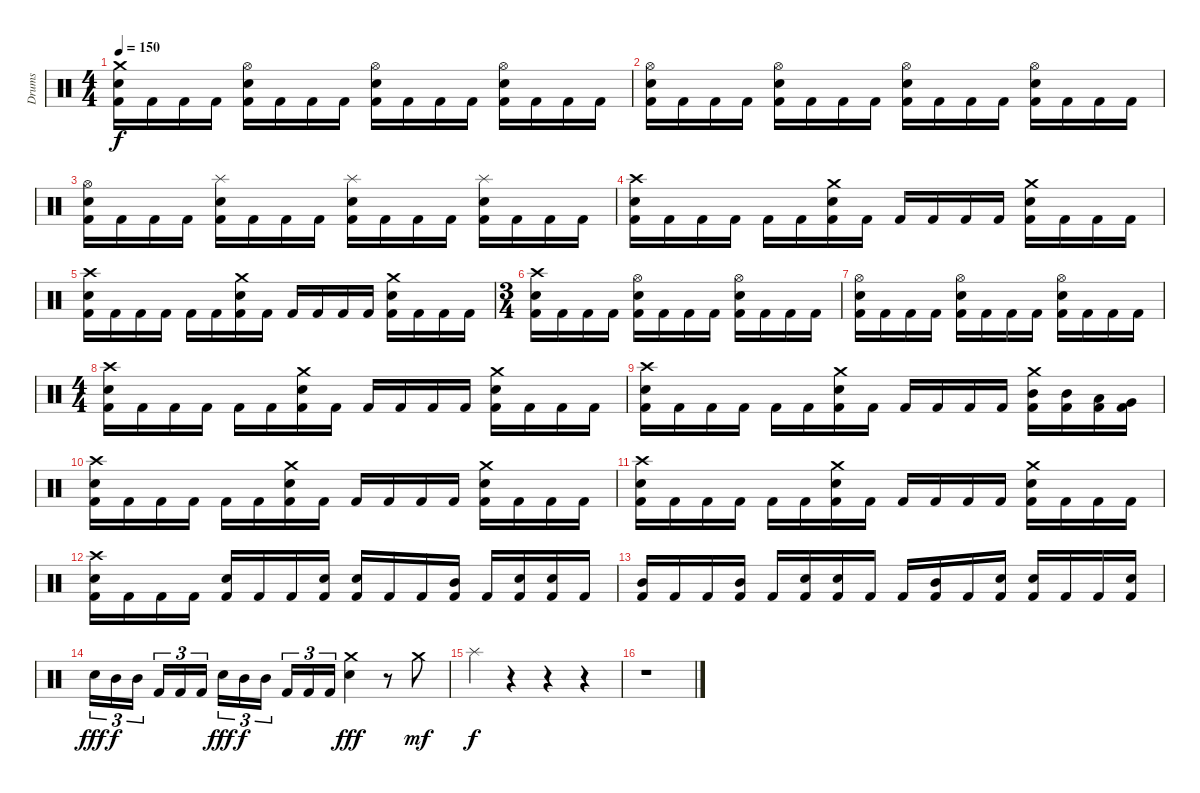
\track ("Drums" "Drums") {instrument percussion}
\staff {score}
\articulation defaults
\ts (4 4)
\tempo 150
\clef neutral
\ks c
("Crash medium (hit)" "Electric Snare (hit)" "Kick (hit) 2").16{dy f} "Kick (hit) 2".16 "Kick (hit) 2".16 "Kick (hit) 2".16 ("Hi-Hat (open)" "Electric Snare (hit)" "Kick (hit) 2").16 "Kick (hit) 2".16 "Kick (hit) 2".16 "Kick (hit) 2".16 ("Hi-Hat (open)" "Electric Snare (hit)" "Kick (hit) 2").16 "Kick (hit) 2".16 "Kick (hit) 2".16 "Kick (hit) 2".16 ("Hi-Hat (open)" "Electric Snare (hit)" "Kick (hit) 2").16 "Kick (hit) 2".16 "Kick (hit) 2".16 "Kick (hit) 2".16 |
("Hi-Hat (open)" "Electric Snare (hit)" "Kick (hit) 2").16 "Kick (hit) 2".16 "Kick (hit) 2".16 "Kick (hit) 2".16 ("Hi-Hat (open)" "Electric Snare (hit)" "Kick (hit) 2").16 "Kick (hit) 2".16 "Kick (hit) 2".16 "Kick (hit) 2".16 ("Hi-Hat (open)" "Electric Snare (hit)" "Kick (hit) 2").16 "Kick (hit) 2".16 "Kick (hit) 2".16 "Kick (hit) 2".16 ("Hi-Hat (open)" "Electric Snare (hit)" "Kick (hit) 2").16 "Kick (hit) 2".16 "Kick (hit) 2".16 "Kick (hit) 2".16 |
("Hi-Hat (open)" "Electric Snare (hit)" "Kick (hit) 2").16 "Kick (hit) 2".16 "Kick (hit) 2".16 "Kick (hit) 2".16 ("Splash (hit)" "Electric Snare (hit)" "Kick (hit) 2").16 "Kick (hit) 2".16 "Kick (hit) 2".16 "Kick (hit) 2".16 ("Splash (hit)" "Electric Snare (hit)" "Kick (hit) 2").16 "Kick (hit) 2".16 "Kick (hit) 2".16 "Kick (hit) 2".16 ("Splash (hit)" "Electric Snare (hit)" "Kick (hit) 2").16 "Kick (hit) 2".16 "Kick (hit) 2".16 "Kick (hit) 2".16 |
("Crash high (hit)" "Electric Snare (hit)" "Kick (hit) 2").16 "Kick (hit) 2".16 "Kick (hit) 2".16 "Kick (hit) 2".16 "Kick (hit) 2".16 "Kick (hit) 2".16 ("Crash medium (hit)" "Electric Snare (hit)" "Kick (hit) 2").16 "Kick (hit) 2".16 "Kick (hit) 2".16 "Kick (hit) 2".16 "Kick (hit) 2".16 "Kick (hit) 2".16 ("Crash medium (hit)" "Electric Snare (hit)" "Kick (hit) 2").16 "Kick (hit) 2".16 "Kick (hit) 2".16 "Kick (hit) 2".16 |
("Crash high (hit)" "Electric Snare (hit)" "Kick (hit) 2").16 "Kick (hit) 2".16 "Kick (hit) 2".16 "Kick (hit) 2".16 "Kick (hit) 2".16 "Kick (hit) 2".16 ("Crash medium (hit)" "Electric Snare (hit)" "Kick (hit) 2").16 "Kick (hit) 2".16 "Kick (hit) 2".16 "Kick (hit) 2".16 "Kick (hit) 2".16 "Kick (hit) 2".16 ("Crash medium (hit)" "Electric Snare (hit)" "Kick (hit) 2").16 "Kick (hit) 2".16 "Kick (hit) 2".16 "Kick (hit) 2".16 |
\ts (3 4)
("Crash high (hit)" "Electric Snare (hit)" "Kick (hit) 2").16 "Kick (hit) 2".16 "Kick (hit) 2".16 "Kick (hit) 2".16 ("Hi-Hat (open)" "Electric Snare (hit)" "Kick (hit) 2").16 "Kick (hit) 2".16 "Kick (hit) 2".16 "Kick (hit) 2".16 ("Hi-Hat (open)" "Electric Snare (hit)" "Kick (hit) 2").16 "Kick (hit) 2".16 "Kick (hit) 2".16 "Kick (hit) 2".16 |
("Hi-Hat (open)" "Electric Snare (hit)" "Kick (hit) 2").16 "Kick (hit) 2".16 "Kick (hit) 2".16 "Kick (hit) 2".16 ("Hi-Hat (open)" "Electric Snare (hit)" "Kick (hit) 2").16 "Kick (hit) 2".16 "Kick (hit) 2".16 "Kick (hit) 2".16 ("Hi-Hat (open)" "Electric Snare (hit)" "Kick (hit) 2").16 "Kick (hit) 2".16 "Kick (hit) 2".16 "Kick (hit) 2".16 |
\ts (4 4)
("Crash high (hit)" "Electric Snare (hit)" "Kick (hit) 2").16 "Kick (hit) 2".16 "Kick (hit) 2".16 "Kick (hit) 2".16 "Kick (hit) 2".16 "Kick (hit) 2".16 ("Crash medium (hit)" "Electric Snare (hit)" "Kick (hit) 2").16 "Kick (hit) 2".16 "Kick (hit) 2".16 "Kick (hit) 2".16 "Kick (hit) 2".16 "Kick (hit) 2".16 ("Crash medium (hit)" "Electric Snare (hit)" "Kick (hit) 2").16 "Kick (hit) 2".16 "Kick (hit) 2".16 "Kick (hit) 2".16 |
("Crash high (hit)" "Electric Snare (hit)" "Kick (hit) 2").16 "Kick (hit) 2".16 "Kick (hit) 2".16 "Kick (hit) 2".16 "Kick (hit) 2".16 "Kick (hit) 2".16 ("Crash medium (hit)" "Electric Snare (hit)" "Kick (hit) 2").16 "Kick (hit) 2".16 "Kick (hit) 2".16 "Kick (hit) 2".16 "Kick (hit) 2".16 "Kick (hit) 2".16 ("Crash medium (hit)" "Mid Tom (hit)" "Kick (hit) 2").16 ("Mid Tom (hit)" "Kick (hit) 2").16 ("Low Tom (hit)" "Kick (hit) 2").16 ("Very Low Tom (hit)" "Kick (hit) 2").16 |
("Crash high (hit)" "Electric Snare (hit)" "Kick (hit) 2").16 "Kick (hit) 2".16 "Kick (hit) 2".16 "Kick (hit) 2".16 "Kick (hit) 2".16 "Kick (hit) 2".16 ("Crash medium (hit)" "Electric Snare (hit)" "Kick (hit) 2").16 "Kick (hit) 2".16 "Kick (hit) 2".16 "Kick (hit) 2".16 "Kick (hit) 2".16 "Kick (hit) 2".16 ("Crash medium (hit)" "Electric Snare (hit)" "Kick (hit) 2").16 "Kick (hit) 2".16 "Kick (hit) 2".16 "Kick (hit) 2".16 |
("Crash high (hit)" "Electric Snare (hit)" "Kick (hit) 2").16 "Kick (hit) 2".16 "Kick (hit) 2".16 "Kick (hit) 2".16 "Kick (hit) 2".16 "Kick (hit) 2".16 ("Crash medium (hit)" "Electric Snare (hit)" "Kick (hit) 2").16 "Kick (hit) 2".16 "Kick (hit) 2".16 "Kick (hit) 2".16 "Kick (hit) 2".16 "Kick (hit) 2".16 ("Crash medium (hit)" "Electric Snare (hit)" "Kick (hit) 2").16 "Kick (hit) 2".16 "Kick (hit) 2".16 "Kick (hit) 2".16 |
("Crash high (hit)" "Electric Snare (hit)" "Kick (hit) 2").16 "Kick (hit) 2".16 "Kick (hit) 2".16 "Kick (hit) 2".16 ("Electric Snare (hit)" "Kick (hit) 2").16 "Kick (hit) 2".16 "Kick (hit) 2".16 ("Electric Snare (hit)" "Kick (hit) 2").16 ("Electric Snare (hit)" "Kick (hit) 2").16 "Kick (hit) 2".16 "Kick (hit) 2".16 ("Mid Tom (hit)" "Kick (hit) 2").16 "Kick (hit) 2".16 ("Electric Snare (hit)" "Kick (hit) 2").16 ("Electric Snare (hit)" "Kick (hit) 2").16 "Kick (hit) 2".16 |
("Mid Tom (hit)" "Kick (hit) 2").16 "Kick (hit) 2".16 "Kick (hit) 2".16 ("Mid Tom (hit)" "Kick (hit) 2").16 "Kick (hit) 2".16 ("Electric Snare (hit)" "Kick (hit) 2").16 ("Electric Snare (hit)" "Kick (hit) 2").16 "Kick (hit) 2".16 "Kick (hit) 2".16 ("Mid Tom (hit)" "Kick (hit) 2").16 "Kick (hit) 2".16 ("Electric Snare (hit)" "Kick (hit) 2").16 ("Electric Snare (hit)" "Kick (hit) 2").16 "Kick (hit) 2".16 "Kick (hit) 2".16 ("Electric Snare (hit)" "Kick (hit) 2").16 |
"Electric Snare (hit)".16{tu (3 2) dy fff} "Mid Tom (hit)".16{tu (3 2) dy f} "Mid Tom (hit)".16{tu (3 2)} "Kick (hit) 2".16{tu (3 2)} "Kick (hit) 2".16{tu (3 2)} "Kick (hit) 2".16{tu (3 2)} "Electric Snare (hit)".16{tu (3 2) dy fff} "Mid Tom (hit)".16{tu (3 2) dy f} "Mid Tom (hit)".16{tu (3 2)} "Kick (hit) 2".16{tu (3 2)} "Kick (hit) 2".16{tu (3 2)} "Kick (hit) 2".16{tu (3 2)} ("Crash medium (hit)" "Electric Snare (hit)").4{dy fff} r.8 "Crash medium (hit)".8{dy mf} |
"Splash (hit)".4{dy f} r.4 r.4 r.4 |
r.1
